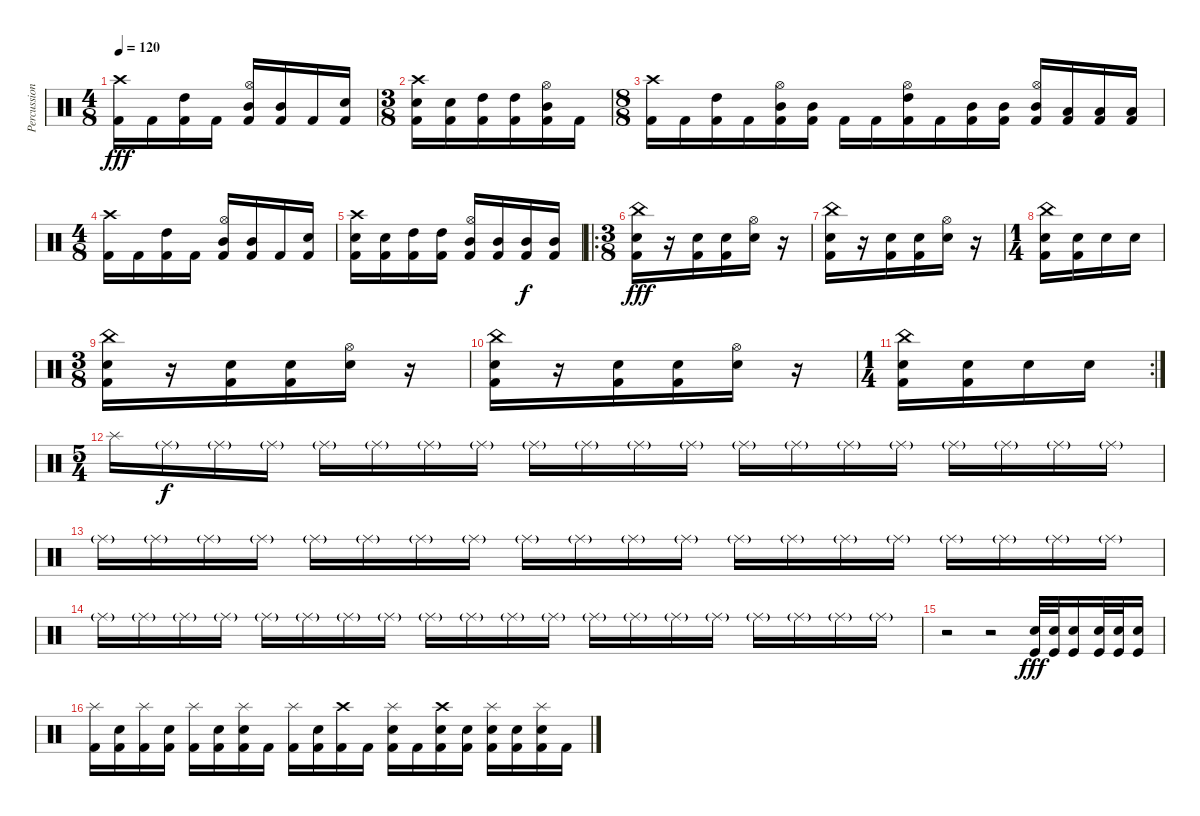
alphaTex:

\track ("Percussion" "Percussion") {instrument percussion}
\staff {score}
\articulation defaults
\ts (4 8)
\tempo 120
\clef neutral
\ks c
("Crash high (hit)" "Kick (hit) 2").16{dy fff} "Kick (hit) 2".16 ("High Tom (hit)" "Kick (hit) 2").16 "Kick (hit) 2".16 ("Hi-Hat (open)" "Mid Tom (hit)" "Kick (hit) 2").16 ("Mid Tom (hit)" "Kick (hit) 2").16 "Kick (hit) 2".16 ("Snare (hit) 2" "Kick (hit) 2").16 |
\ts (3 8)
("Crash high (hit)" "Snare (hit) 2" "Kick (hit) 2").16 ("Snare (hit) 2" "Kick (hit) 2").16 ("High Tom (hit)" "Kick (hit) 2").16 ("High Tom (hit)" "Kick (hit) 2").16 ("Hi-Hat (open)" "Mid Tom (hit)" "Kick (hit) 2").16 "Kick (hit) 2".16 |
\ts (8 8)
("Crash high (hit)" "Kick (hit) 2").16 "Kick (hit) 2".16 ("High Tom (hit)" "Kick (hit) 2").16 "Kick (hit) 2".16 ("Hi-Hat (open)" "Mid Tom (hit)" "Kick (hit) 2").16 ("Mid Tom (hit)" "Kick (hit) 2").16 "Kick (hit) 2".16 "Kick (hit) 2".16 ("Hi-Hat (open)" "High Tom (hit)" "Kick (hit) 2").16 "Kick (hit) 2".16 ("Mid Tom (hit)" "Kick (hit) 2").16 ("Mid Tom (hit)" "Kick (hit) 2").16 ("Hi-Hat (open)" "Mid Tom (hit)" "Kick (hit) 2").16 ("Low Tom (hit)" "Kick (hit) 2").16 ("Low Tom (hit)" "Kick (hit) 2").16 ("Low Tom (hit)" "Kick (hit) 2").16 |
\ts (4 8)
("Crash high (hit)" "Kick (hit) 2").16 "Kick (hit) 2".16 ("High Tom (hit)" "Kick (hit) 2").16 "Kick (hit) 2".16 ("Hi-Hat (open)" "Mid Tom (hit)" "Kick (hit) 2").16 ("Mid Tom (hit)" "Kick (hit) 2").16 "Kick (hit) 2".16 ("Snare (hit) 2" "Kick (hit) 2").16 |
("Crash high (hit)" "Snare (hit) 2" "Kick (hit) 2").16 ("Snare (hit) 2" "Kick (hit) 2").16 ("High Tom (hit)" "Kick (hit) 2").16 ("High Tom (hit)" "Kick (hit) 2").16 ("Hi-Hat (open)" "Mid Tom (hit)" "Kick (hit) 2").16 ("Mid Tom (hit)" "Kick (hit) 2").16 ("Mid Tom (hit)" "Kick (hit) 2").16{dy f} ("Mid Tom (hit)" "Kick (hit) 2").16 |
\ro
\ts (3 8)
("China (hit)" "Snare (hit) 2" "Kick (hit) 2").16{dy fff} r.16 ("Snare (hit) 2" "Kick (hit) 2").16 ("Snare (hit) 2" "Kick (hit) 2").16 ("Hi-Hat (open)" "Snare (hit) 2").16 r.16 |
("China (hit)" "Snare (hit) 2" "Kick (hit) 2").16 r.16 ("Snare (hit) 2" "Kick (hit) 2").16 ("Snare (hit) 2" "Kick (hit) 2").16 ("Hi-Hat (open)" "Snare (hit) 2").16 r.16 |
\ts (1 4)
("China (hit)" "Snare (hit) 2" "Kick (hit) 2").16 ("Snare (hit) 2" "Kick (hit) 2").16 "Snare (hit) 2".16 "Snare (hit) 2".16 |
\ts (3 8)
("China (hit)" "Snare (hit) 2" "Kick (hit) 2").16 r.16 ("Snare (hit) 2" "Kick (hit) 2").16 ("Snare (hit) 2" "Kick (hit) 2").16 ("Hi-Hat (open)" "Snare (hit) 2").16 r.16 |
("China (hit)" "Snare (hit) 2" "Kick (hit) 2").16 r.16 ("Snare (hit) 2" "Kick (hit) 2").16 ("Snare (hit) 2" "Kick (hit) 2").16 ("Hi-Hat (open)" "Snare (hit) 2").16 r.16 |
\rc 2
\ts (1 4)
("China (hit)" "Snare (hit) 2" "Kick (hit) 2").16 ("Snare (hit) 2" "Kick (hit) 2").16 "Snare (hit) 2".16 "Snare (hit) 2".16 |
\ts (5 4)
"Splash (hit)".16 "Ride (middle)"{g}.16{dy f} "Ride (middle)"{g}.16 "Ride (middle)"{g}.16 "Ride (middle)"{g}.16 "Ride (middle)"{g}.16 "Ride (middle)"{g}.16 "Ride (middle)"{g}.16 "Ride (middle)"{g}.16 "Ride (middle)"{g}.16 "Ride (middle)"{g}.16 "Ride (middle)"{g}.16 "Ride (middle)"{g}.16 "Ride (middle)"{g}.16 "Ride (middle)"{g}.16 "Ride (middle)"{g}.16 "Ride (middle)"{g}.16 "Ride (middle)"{g}.16 "Ride (middle)"{g}.16 "Ride (middle)"{g}.16 |
"Ride (middle)"{g}.16 "Ride (middle)"{g}.16 "Ride (middle)"{g}.16 "Ride (middle)"{g}.16 "Ride (middle)"{g}.16 "Ride (middle)"{g}.16 "Ride (middle)"{g}.16 "Ride (middle)"{g}.16 "Ride (middle)"{g}.16 "Ride (middle)"{g}.16 "Ride (middle)"{g}.16 "Ride (middle)"{g}.16 "Ride (middle)"{g}.16 "Ride (middle)"{g}.16 "Ride (middle)"{g}.16 "Ride (middle)"{g}.16 "Ride (middle)"{g}.16 "Ride (middle)"{g}.16 "Ride (middle)"{g}.16 "Ride (middle)"{g}.16 |
"Ride (middle)"{g}.16 "Ride (middle)"{g}.16 "Ride (middle)"{g}.16 "Ride (middle)"{g}.16 "Ride (middle)"{g}.16 "Ride (middle)"{g}.16 "Ride (middle)"{g}.16 "Ride (middle)"{g}.16 "Ride (middle)"{g}.16 "Ride (middle)"{g}.16 "Ride (middle)"{g}.16 "Ride (middle)"{g}.16 "Ride (middle)"{g}.16 "Ride (middle)"{g}.16 "Ride (middle)"{g}.16 "Ride (middle)"{g}.16 "Ride (middle)"{g}.16 "Ride (middle)"{g}.16 "Ride (middle)"{g}.16 "Ride (middle)"{g}.16 |
r.2 r.2 ("Snare (hit) 2" "Kick (hit)").32{dy fff volume 16} ("Snare (hit) 2" "Kick (hit)").32 ("Snare (hit) 2" "Kick (hit)").16 ("Snare (hit) 2" "Kick (hit)").32 ("Snare (hit) 2" "Kick (hit)").32 ("Snare (hit) 2" "Kick (hit)").16 |
("Splash (hit)" "Kick (hit) 2").16 ("Snare (hit) 2" "Kick (hit) 2").16 ("Splash (hit)" "Kick (hit) 2").16 ("Snare (hit) 2" "Kick (hit) 2").16 ("Splash (hit)" "Kick (hit) 2").16 ("Snare (hit) 2" "Kick (hit) 2").16 ("Splash (hit)" "Snare (hit) 2" "Kick (hit) 2").16 "Kick (hit) 2".16 ("Splash (hit)" "Kick (hit) 2").16 ("Snare (hit) 2" "Kick (hit) 2").16 ("Crash high (hit)" "Kick (hit) 2").16 "Kick (hit) 2".16 ("Splash (hit)" "Snare (hit) 2" "Kick (hit) 2").16 "Kick (hit) 2".16 ("Crash high (hit)" "Snare (hit) 2" "Kick (hit) 2").16 ("Snare (hit) 2" "Kick (hit) 2").16 ("Splash (hit)" "Snare (hit) 2" "Kick (hit) 2").16 ("Snare (hit) 2" "Kick (hit) 2").16 ("Splash (hit)" "Snare (hit) 2" "Kick (hit) 2").16 "Kick (hit) 2".16
